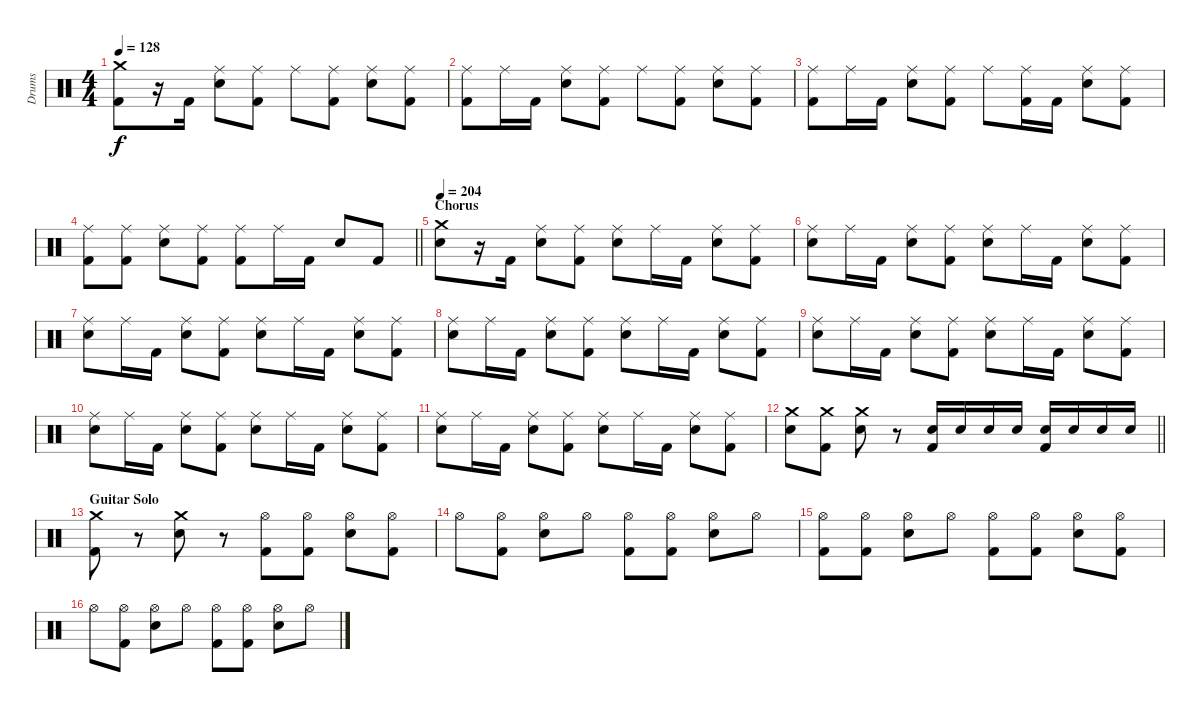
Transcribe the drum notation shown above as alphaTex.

\track ("Drums" "Drums") {instrument percussion}
\staff {score}
\articulation defaults
\ts (4 4)
\tempo 128
\clef neutral
\ks c
("Crash medium (hit)" "Kick (hit) 2").8{dy f} r.16 "Kick (hit) 2".16 ("Ride (middle)" "Snare (hit) 2").8 ("Ride (middle)" "Kick (hit) 2").8 "Ride (middle)".8 ("Ride (middle)" "Kick (hit) 2").8 ("Ride (middle)" "Snare (hit) 2").8 ("Ride (middle)" "Kick (hit) 2").8 |
("Ride (middle)" "Kick (hit) 2").8 "Ride (middle)".16 "Kick (hit) 2".16 ("Ride (middle)" "Snare (hit) 2").8 ("Ride (middle)" "Kick (hit) 2").8 "Ride (middle)".8 ("Ride (middle)" "Kick (hit) 2").8 ("Ride (middle)" "Snare (hit) 2").8 ("Ride (middle)" "Kick (hit) 2").8 |
("Ride (middle)" "Kick (hit) 2").8 "Ride (middle)".16 "Kick (hit) 2".16 ("Ride (middle)" "Snare (hit) 2").8 ("Ride (middle)" "Kick (hit) 2").8 "Ride (middle)".8 ("Ride (middle)" "Kick (hit) 2").16 "Kick (hit) 2".16 ("Ride (middle)" "Snare (hit) 2").8 ("Ride (middle)" "Kick (hit) 2").8 |
\barLineRight lightlight
("Ride (middle)" "Kick (hit) 2").8 ("Ride (middle)" "Kick (hit) 2").8 ("Ride (middle)" "Snare (hit) 2").8 ("Ride (middle)" "Kick (hit) 2").8 ("Ride (middle)" "Kick (hit) 2").8 "Ride (middle)".16 "Kick (hit) 2".16 "Snare (hit) 2".8 "Kick (hit) 2".8 |
\section ("" "Chorus")
\tempo 204
("Crash medium (hit)" "Snare (hit) 2").8 r.16 "Kick (hit) 2".16 ("Ride (middle)" "Snare (hit) 2").8 ("Ride (middle)" "Kick (hit) 2").8 ("Ride (middle)" "Snare (hit) 2").8 "Ride (middle)".16 "Kick (hit) 2".16 ("Ride (middle)" "Snare (hit) 2").8 ("Ride (middle)" "Kick (hit) 2").8 |
("Ride (middle)" "Snare (hit) 2").8 "Ride (middle)".16 "Kick (hit) 2".16 ("Ride (middle)" "Snare (hit) 2").8 ("Ride (middle)" "Kick (hit) 2").8 ("Ride (middle)" "Snare (hit) 2").8 "Ride (middle)".16 "Kick (hit) 2".16 ("Ride (middle)" "Snare (hit) 2").8 ("Ride (middle)" "Kick (hit) 2").8 |
("Ride (middle)" "Snare (hit) 2").8 "Ride (middle)".16 "Kick (hit) 2".16 ("Ride (middle)" "Snare (hit) 2").8 ("Ride (middle)" "Kick (hit) 2").8 ("Ride (middle)" "Snare (hit) 2").8 "Ride (middle)".16 "Kick (hit) 2".16 ("Ride (middle)" "Snare (hit) 2").8 ("Ride (middle)" "Kick (hit) 2").8 |
("Ride (middle)" "Snare (hit) 2").8 "Ride (middle)".16 "Kick (hit) 2".16 ("Ride (middle)" "Snare (hit) 2").8 ("Ride (middle)" "Kick (hit) 2").8 ("Ride (middle)" "Snare (hit) 2").8 "Ride (middle)".16 "Kick (hit) 2".16 ("Ride (middle)" "Snare (hit) 2").8 ("Ride (middle)" "Kick (hit) 2").8 |
("Ride (middle)" "Snare (hit) 2").8 "Ride (middle)".16 "Kick (hit) 2".16 ("Ride (middle)" "Snare (hit) 2").8 ("Ride (middle)" "Kick (hit) 2").8 ("Ride (middle)" "Snare (hit) 2").8 "Ride (middle)".16 "Kick (hit) 2".16 ("Ride (middle)" "Snare (hit) 2").8 ("Ride (middle)" "Kick (hit) 2").8 |
("Ride (middle)" "Snare (hit) 2").8 "Ride (middle)".16 "Kick (hit) 2".16 ("Ride (middle)" "Snare (hit) 2").8 ("Ride (middle)" "Kick (hit) 2").8 ("Ride (middle)" "Snare (hit) 2").8 "Ride (middle)".16 "Kick (hit) 2".16 ("Ride (middle)" "Snare (hit) 2").8 ("Ride (middle)" "Kick (hit) 2").8 |
("Ride (middle)" "Snare (hit) 2").8 "Ride (middle)".16 "Kick (hit) 2".16 ("Ride (middle)" "Snare (hit) 2").8 ("Ride (middle)" "Kick (hit) 2").8 ("Ride (middle)" "Snare (hit) 2").8 "Ride (middle)".16 "Kick (hit) 2".16 ("Ride (middle)" "Snare (hit) 2").8 ("Ride (middle)" "Kick (hit) 2").8 |
\barLineRight lightlight
("Crash medium (hit)" "Snare (hit) 2").8 ("Crash medium (hit)" "Kick (hit) 2").8 ("Crash medium (hit)" "Snare (hit) 2").8 r.8 ("Snare (hit) 2" "Kick (hit) 2").16 "Snare (hit) 2".16 "Snare (hit) 2".16 "Snare (hit) 2".16 ("Snare (hit) 2" "Kick (hit) 2").16 "Snare (hit) 2".16 "Snare (hit) 2".16 "Snare (hit) 2".16 |
\section ("" "Guitar Solo")
("Crash medium (hit)" "Kick (hit) 2").8 r.8 ("Crash medium (hit)" "Snare (hit) 2").8 r.8 ("Hi-Hat (open)" "Kick (hit) 2").8 ("Hi-Hat (open)" "Kick (hit) 2").8 ("Hi-Hat (open)" "Snare (hit) 2").8 ("Hi-Hat (open)" "Kick (hit) 2").8 |
"Hi-Hat (open)".8 ("Hi-Hat (open)" "Kick (hit) 2").8 ("Hi-Hat (open)" "Snare (hit) 2").8 "Hi-Hat (open)".8 ("Hi-Hat (open)" "Kick (hit) 2").8 ("Hi-Hat (open)" "Kick (hit) 2").8 ("Hi-Hat (open)" "Snare (hit) 2").8 "Hi-Hat (open)".8 |
("Hi-Hat (open)" "Kick (hit) 2").8 ("Hi-Hat (open)" "Kick (hit) 2").8 ("Hi-Hat (open)" "Snare (hit) 2").8 "Hi-Hat (open)".8 ("Hi-Hat (open)" "Kick (hit) 2").8 ("Hi-Hat (open)" "Kick (hit) 2").8 ("Hi-Hat (open)" "Snare (hit) 2").8 ("Hi-Hat (open)" "Kick (hit) 2").8 |
"Hi-Hat (open)".8 ("Hi-Hat (open)" "Kick (hit) 2").8 ("Hi-Hat (open)" "Snare (hit) 2").8 "Hi-Hat (open)".8 ("Hi-Hat (open)" "Kick (hit) 2").8 ("Hi-Hat (open)" "Kick (hit) 2").8 ("Hi-Hat (open)" "Snare (hit) 2").8 "Hi-Hat (open)".8
